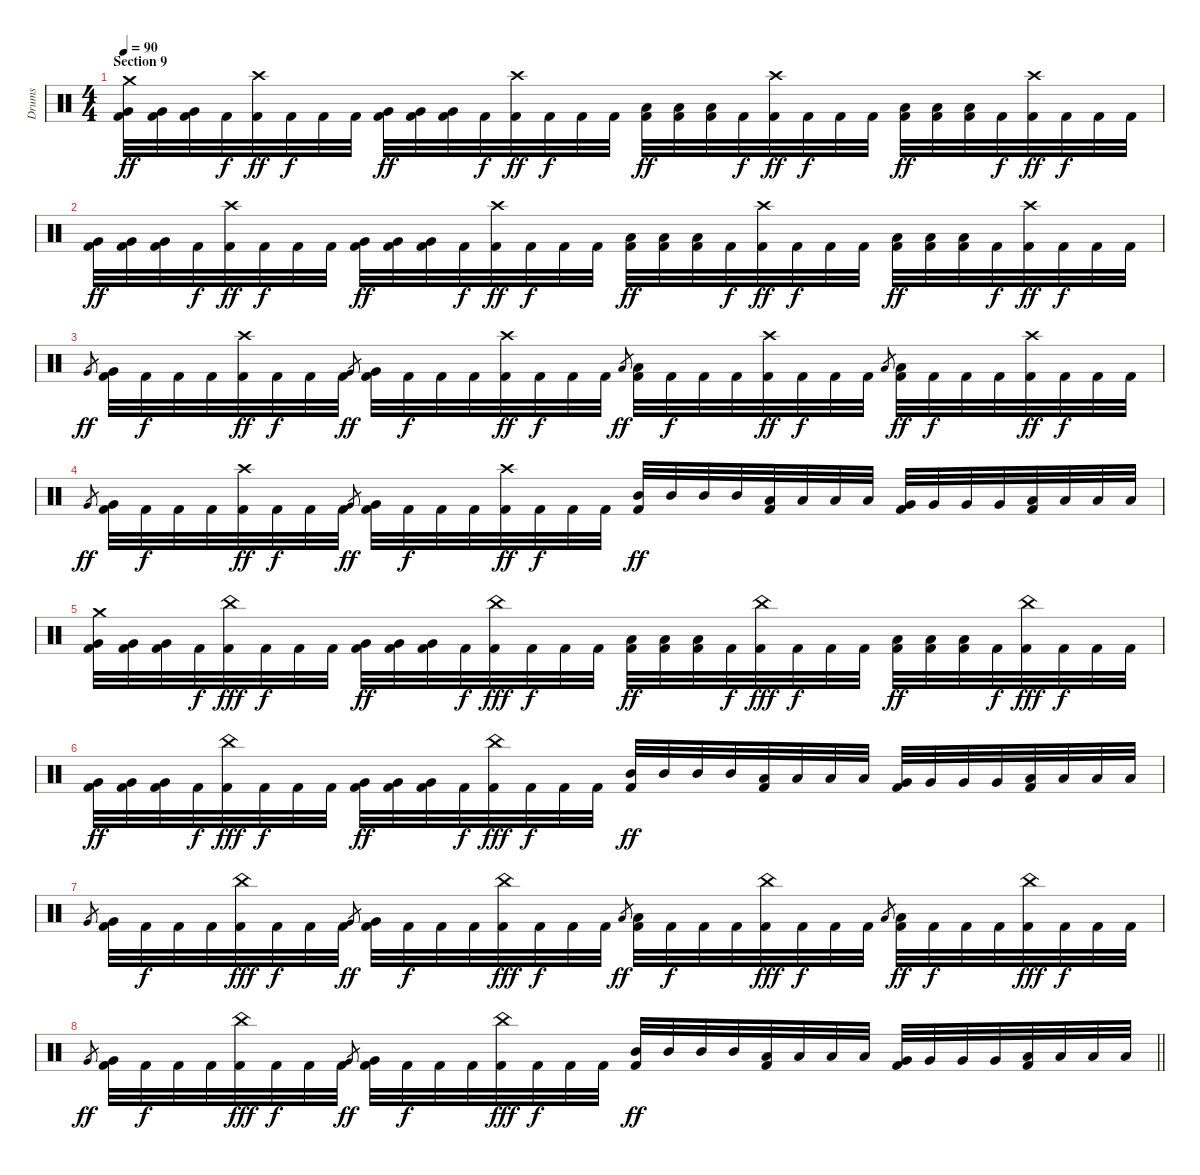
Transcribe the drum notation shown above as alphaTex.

\track ("Drums" "Drums") {instrument percussion}
\staff {score}
\articulation defaults
\ts (4 4)
\section ("" "Section 9")
\tempo 90
\clef neutral
\ks c
("Crash medium (hit)" "Very Low Tom (hit)" "Kick (hit) 2").32{dy ff} ("Very Low Tom (hit)" "Kick (hit) 2").32 ("Very Low Tom (hit)" "Kick (hit) 2").32 "Kick (hit) 2".32{dy f} ("Crash high (hit)" "Kick (hit) 2").32{dy ff} "Kick (hit) 2".32{dy f} "Kick (hit) 2".32 "Kick (hit) 2".32 ("Very Low Tom (hit)" "Kick (hit) 2").32{dy ff} ("Very Low Tom (hit)" "Kick (hit) 2").32 ("Very Low Tom (hit)" "Kick (hit) 2").32 "Kick (hit) 2".32{dy f} ("Crash high (hit)" "Kick (hit) 2").32{dy ff} "Kick (hit) 2".32{dy f} "Kick (hit) 2".32 "Kick (hit) 2".32 ("Low Tom (hit)" "Kick (hit) 2").32{dy ff} ("Low Tom (hit)" "Kick (hit) 2").32 ("Low Tom (hit)" "Kick (hit) 2").32 "Kick (hit) 2".32{dy f} ("Crash high (hit)" "Kick (hit) 2").32{dy ff} "Kick (hit) 2".32{dy f} "Kick (hit) 2".32 "Kick (hit) 2".32 ("Low Tom (hit)" "Kick (hit) 2").32{dy ff} ("Low Tom (hit)" "Kick (hit) 2").32 ("Low Tom (hit)" "Kick (hit) 2").32 "Kick (hit) 2".32{dy f} ("Crash high (hit)" "Kick (hit) 2").32{dy ff} "Kick (hit) 2".32{dy f} "Kick (hit) 2".32 "Kick (hit) 2".32 |
("Very Low Tom (hit)" "Kick (hit) 2").32{dy ff} ("Very Low Tom (hit)" "Kick (hit) 2").32 ("Very Low Tom (hit)" "Kick (hit) 2").32 "Kick (hit) 2".32{dy f} ("Crash high (hit)" "Kick (hit) 2").32{dy ff} "Kick (hit) 2".32{dy f} "Kick (hit) 2".32 "Kick (hit) 2".32 ("Very Low Tom (hit)" "Kick (hit) 2").32{dy ff} ("Very Low Tom (hit)" "Kick (hit) 2").32 ("Very Low Tom (hit)" "Kick (hit) 2").32 "Kick (hit) 2".32{dy f} ("Crash high (hit)" "Kick (hit) 2").32{dy ff} "Kick (hit) 2".32{dy f} "Kick (hit) 2".32 "Kick (hit) 2".32 ("Low Tom (hit)" "Kick (hit) 2").32{dy ff} ("Low Tom (hit)" "Kick (hit) 2").32 ("Low Tom (hit)" "Kick (hit) 2").32 "Kick (hit) 2".32{dy f} ("Crash high (hit)" "Kick (hit) 2").32{dy ff} "Kick (hit) 2".32{dy f} "Kick (hit) 2".32 "Kick (hit) 2".32 ("Low Tom (hit)" "Kick (hit) 2").32{dy ff} ("Low Tom (hit)" "Kick (hit) 2").32 ("Low Tom (hit)" "Kick (hit) 2").32 "Kick (hit) 2".32{dy f} ("Crash high (hit)" "Kick (hit) 2").32{dy ff} "Kick (hit) 2".32{dy f} "Kick (hit) 2".32 "Kick (hit) 2".32 |
"Very Low Tom (hit)".8{gr dy ff} ("Very Low Tom (hit)" "Kick (hit) 2").32 "Kick (hit) 2".32{dy f} "Kick (hit) 2".32 "Kick (hit) 2".32 ("Crash high (hit)" "Kick (hit) 2").32{dy ff} "Kick (hit) 2".32{dy f} "Kick (hit) 2".32 "Kick (hit) 2".32 "Very Low Tom (hit)".8{gr dy ff} ("Very Low Tom (hit)" "Kick (hit) 2").32 "Kick (hit) 2".32{dy f} "Kick (hit) 2".32 "Kick (hit) 2".32 ("Crash high (hit)" "Kick (hit) 2").32{dy ff} "Kick (hit) 2".32{dy f} "Kick (hit) 2".32 "Kick (hit) 2".32 "Low Tom (hit)".8{gr dy ff} ("Low Tom (hit)" "Kick (hit) 2").32 "Kick (hit) 2".32{dy f} "Kick (hit) 2".32 "Kick (hit) 2".32 ("Crash high (hit)" "Kick (hit) 2").32{dy ff} "Kick (hit) 2".32{dy f} "Kick (hit) 2".32 "Kick (hit) 2".32 "Low Tom (hit)".8{gr} ("Low Tom (hit)" "Kick (hit) 2").32{dy ff} "Kick (hit) 2".32{dy f} "Kick (hit) 2".32 "Kick (hit) 2".32 ("Crash high (hit)" "Kick (hit) 2").32{dy ff} "Kick (hit) 2".32{dy f} "Kick (hit) 2".32 "Kick (hit) 2".32 |
"Very Low Tom (hit)".8{gr dy ff} ("Very Low Tom (hit)" "Kick (hit) 2").32 "Kick (hit) 2".32{dy f} "Kick (hit) 2".32 "Kick (hit) 2".32 ("Crash high (hit)" "Kick (hit) 2").32{dy ff} "Kick (hit) 2".32{dy f} "Kick (hit) 2".32 "Kick (hit) 2".32 "Very Low Tom (hit)".8{gr dy ff} ("Very Low Tom (hit)" "Kick (hit) 2").32 "Kick (hit) 2".32{dy f} "Kick (hit) 2".32 "Kick (hit) 2".32 ("Crash high (hit)" "Kick (hit) 2").32{dy ff} "Kick (hit) 2".32{dy f} "Kick (hit) 2".32 "Kick (hit) 2".32 ("Mid Tom (hit)" "Kick (hit) 2").32{dy ff} "Mid Tom (hit)".32 "Mid Tom (hit)".32 "Mid Tom (hit)".32 ("Low Tom (hit)" "Kick (hit) 2").32 "Low Tom (hit)".32 "Low Tom (hit)".32 "Low Tom (hit)".32 ("Very Low Tom (hit)" "Kick (hit) 2").32 "Very Low Tom (hit)".32 "Very Low Tom (hit)".32 "Very Low Tom (hit)".32 ("Low Floor Tom (hit)" "Kick (hit) 2").32 "Low Floor Tom (hit)".32 "Low Floor Tom (hit)".32 "Low Floor Tom (hit)".32 |
("Crash medium (hit)" "Very Low Tom (hit)" "Kick (hit) 2").32 ("Very Low Tom (hit)" "Kick (hit) 2").32 ("Very Low Tom (hit)" "Kick (hit) 2").32 "Kick (hit) 2".32{dy f} ("China (hit)" "Kick (hit) 2").32{dy fff} "Kick (hit) 2".32{dy f} "Kick (hit) 2".32 "Kick (hit) 2".32 ("Very Low Tom (hit)" "Kick (hit) 2").32{dy ff} ("Very Low Tom (hit)" "Kick (hit) 2").32 ("Very Low Tom (hit)" "Kick (hit) 2").32 "Kick (hit) 2".32{dy f} ("China (hit)" "Kick (hit) 2").32{dy fff} "Kick (hit) 2".32{dy f} "Kick (hit) 2".32 "Kick (hit) 2".32 ("Low Tom (hit)" "Kick (hit) 2").32{dy ff} ("Low Tom (hit)" "Kick (hit) 2").32 ("Low Tom (hit)" "Kick (hit) 2").32 "Kick (hit) 2".32{dy f} ("China (hit)" "Kick (hit) 2").32{dy fff} "Kick (hit) 2".32{dy f} "Kick (hit) 2".32 "Kick (hit) 2".32 ("Low Tom (hit)" "Kick (hit) 2").32{dy ff} ("Low Tom (hit)" "Kick (hit) 2").32 ("Low Tom (hit)" "Kick (hit) 2").32 "Kick (hit) 2".32{dy f} ("China (hit)" "Kick (hit) 2").32{dy fff} "Kick (hit) 2".32{dy f} "Kick (hit) 2".32 "Kick (hit) 2".32 |
("Very Low Tom (hit)" "Kick (hit) 2").32{dy ff} ("Very Low Tom (hit)" "Kick (hit) 2").32 ("Very Low Tom (hit)" "Kick (hit) 2").32 "Kick (hit) 2".32{dy f} ("China (hit)" "Kick (hit) 2").32{dy fff} "Kick (hit) 2".32{dy f} "Kick (hit) 2".32 "Kick (hit) 2".32 ("Very Low Tom (hit)" "Kick (hit) 2").32{dy ff} ("Very Low Tom (hit)" "Kick (hit) 2").32 ("Very Low Tom (hit)" "Kick (hit) 2").32 "Kick (hit) 2".32{dy f} ("China (hit)" "Kick (hit) 2").32{dy fff} "Kick (hit) 2".32{dy f} "Kick (hit) 2".32 "Kick (hit) 2".32 ("Mid Tom (hit)" "Kick (hit) 2").32{dy ff} "Mid Tom (hit)".32 "Mid Tom (hit)".32 "Mid Tom (hit)".32 ("Low Tom (hit)" "Kick (hit) 2").32 "Low Tom (hit)".32 "Low Tom (hit)".32 "Low Tom (hit)".32 ("Very Low Tom (hit)" "Kick (hit) 2").32 "Very Low Tom (hit)".32 "Very Low Tom (hit)".32 "Very Low Tom (hit)".32 ("Low Floor Tom (hit)" "Kick (hit) 2").32 "Low Floor Tom (hit)".32 "Low Floor Tom (hit)".32 "Low Floor Tom (hit)".32 |
"Very Low Tom (hit)".8{gr} ("Very Low Tom (hit)" "Kick (hit) 2").32 "Kick (hit) 2".32{dy f} "Kick (hit) 2".32 "Kick (hit) 2".32 ("China (hit)" "Kick (hit) 2").32{dy fff} "Kick (hit) 2".32{dy f} "Kick (hit) 2".32 "Kick (hit) 2".32 "Very Low Tom (hit)".8{gr dy ff} ("Very Low Tom (hit)" "Kick (hit) 2").32 "Kick (hit) 2".32{dy f} "Kick (hit) 2".32 "Kick (hit) 2".32 ("China (hit)" "Kick (hit) 2").32{dy fff} "Kick (hit) 2".32{dy f} "Kick (hit) 2".32 "Kick (hit) 2".32 "Low Tom (hit)".8{gr dy ff} ("Low Tom (hit)" "Kick (hit) 2").32 "Kick (hit) 2".32{dy f} "Kick (hit) 2".32 "Kick (hit) 2".32 ("China (hit)" "Kick (hit) 2").32{dy fff} "Kick (hit) 2".32{dy f} "Kick (hit) 2".32 "Kick (hit) 2".32 "Low Tom (hit)".8{gr} ("Low Tom (hit)" "Kick (hit) 2").32{dy ff} "Kick (hit) 2".32{dy f} "Kick (hit) 2".32 "Kick (hit) 2".32 ("China (hit)" "Kick (hit) 2").32{dy fff} "Kick (hit) 2".32{dy f} "Kick (hit) 2".32 "Kick (hit) 2".32 |
\barLineRight lightlight "Very Low Tom (hit)".8{gr dy ff}
("Very Low Tom (hit)" "Kick (hit) 2").32 "Kick (hit) 2".32{dy f} "Kick (hit) 2".32 "Kick (hit) 2".32 ("China (hit)" "Kick (hit) 2").32{dy fff} "Kick (hit) 2".32{dy f} "Kick (hit) 2".32 "Kick (hit) 2".32 "Very Low Tom (hit)".8{gr dy ff} ("Very Low Tom (hit)" "Kick (hit) 2").32 "Kick (hit) 2".32{dy f} "Kick (hit) 2".32 "Kick (hit) 2".32 ("China (hit)" "Kick (hit) 2").32{dy fff} "Kick (hit) 2".32{dy f} "Kick (hit) 2".32 "Kick (hit) 2".32 ("Mid Tom (hit)" "Kick (hit) 2").32{dy ff} "Mid Tom (hit)".32 "Mid Tom (hit)".32 "Mid Tom (hit)".32 ("Low Tom (hit)" "Kick (hit) 2").32 "Low Tom (hit)".32 "Low Tom (hit)".32 "Low Tom (hit)".32 ("Very Low Tom (hit)" "Kick (hit) 2").32 "Very Low Tom (hit)".32 "Very Low Tom (hit)".32 "Very Low Tom (hit)".32 ("Low Floor Tom (hit)" "Kick (hit) 2").32 "Low Floor Tom (hit)".32 "Low Floor Tom (hit)".32 "Low Floor Tom (hit)".32
